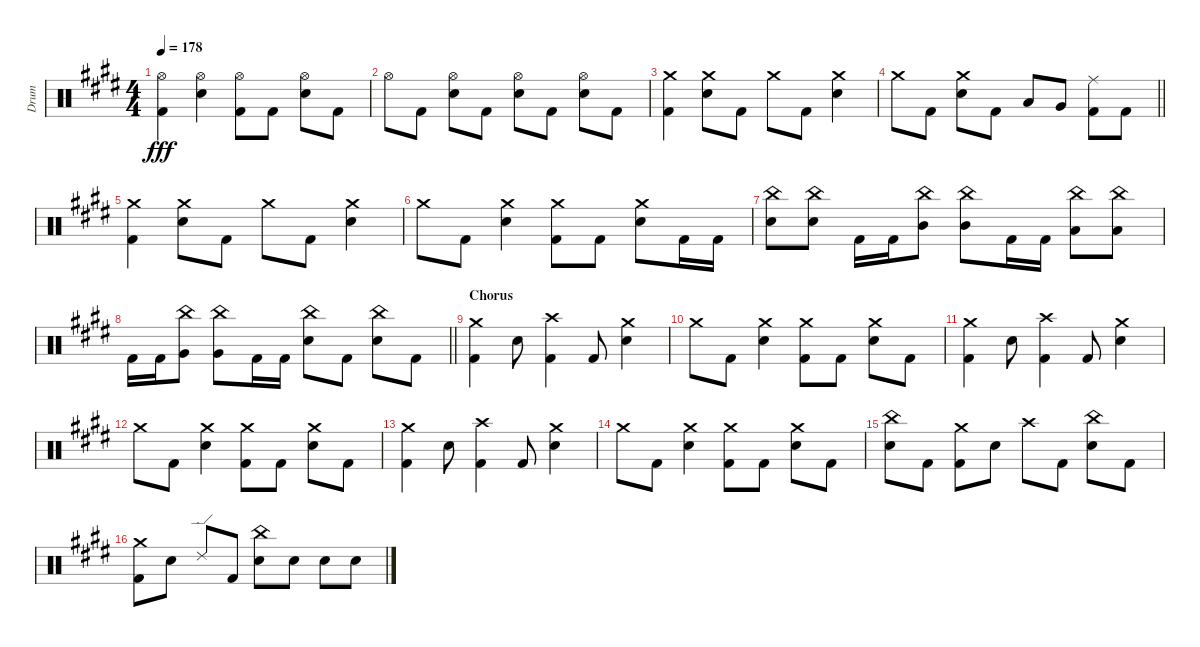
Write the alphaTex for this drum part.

\track ("Drum" "Drum") {instrument percussion}
\staff {score}
\articulation defaults
\ts (4 4)
\tempo 178
\clef neutral
\ks e
("Hi-Hat (open)" "Kick (hit) 2").4{dy fff} ("Hi-Hat (open)" "Electric Snare (hit)").4 ("Hi-Hat (open)" "Kick (hit) 2").8 "Kick (hit) 2".8 ("Hi-Hat (open)" "Electric Snare (hit)").8 "Kick (hit) 2".8 |
"Hi-Hat (open)".8 "Kick (hit) 2".8 ("Hi-Hat (open)" "Electric Snare (hit)").8 "Kick (hit) 2".8 ("Hi-Hat (open)" "Electric Snare (hit)").8 "Kick (hit) 2".8 ("Hi-Hat (open)" "Electric Snare (hit)").8 "Kick (hit) 2".8 |
("Crash medium (hit)" "Kick (hit) 2").4 ("Crash medium (hit)" "Electric Snare (hit)").8 "Kick (hit) 2".8 "Crash medium (hit)".8 "Kick (hit) 2".8 ("Crash medium (hit)" "Electric Snare (hit)").4 |
\barLineRight lightlight "Crash medium (hit)".8 "Kick (hit) 2".8
("Crash medium (hit)" "Electric Snare (hit)").8 "Kick (hit) 2".8 "Low Tom (hit)".8 "Very Low Tom (hit)".8 ("Ride (middle)" "Kick (hit) 2").8 "Kick (hit) 2".8 |
("Crash medium (hit)" "Kick (hit) 2").4 ("Crash medium (hit)" "Electric Snare (hit)").8 "Kick (hit) 2".8 "Crash medium (hit)".8 "Kick (hit) 2".8 ("Crash medium (hit)" "Electric Snare (hit)").4 |
"Crash medium (hit)".8 "Kick (hit) 2".8 ("Crash medium (hit)" "Electric Snare (hit)").4 ("Crash medium (hit)" "Kick (hit) 2").8 "Kick (hit) 2".8 ("Crash medium (hit)" "Electric Snare (hit)").8 "Kick (hit) 2".16 "Kick (hit) 2".16 |
("China (hit)" "Electric Snare (hit)").8 ("China (hit)" "Electric Snare (hit)").8 "Kick (hit) 2".16 "Kick (hit) 2".16 ("China (hit)" "Mid Tom (hit)").8 ("China (hit)" "Mid Tom (hit)").8 "Kick (hit) 2".16 "Kick (hit) 2".16 ("China (hit)" "Low Tom (hit)").8 ("China (hit)" "Low Tom (hit)").8 |
\barLineRight lightlight "Kick (hit) 2".16 "Kick (hit) 2".16
("China (hit)" "Very Low Tom (hit)").8 ("China (hit)" "Very Low Tom (hit)").8 "Kick (hit) 2".16 "Kick (hit) 2".16 ("China (hit)" "Electric Snare (hit)").8 "Kick (hit) 2".8 ("China (hit)" "Electric Snare (hit)").8 "Kick (hit) 2".8 |
\section ("" "Chorus")
("Crash medium (hit)" "Kick (hit) 2").4 "Electric Snare (hit)".8 ("Crash high (hit)" "Kick (hit) 2").4 "Kick (hit) 2".8 ("Crash medium (hit)" "Electric Snare (hit)").4 |
"Crash medium (hit)".8 "Kick (hit) 2".8 ("Crash medium (hit)" "Electric Snare (hit)").4 ("Crash medium (hit)" "Kick (hit) 2").8 "Kick (hit) 2".8 ("Crash medium (hit)" "Electric Snare (hit)").8 "Kick (hit) 2".8 |
("Crash medium (hit)" "Kick (hit) 2").4 "Electric Snare (hit)".8 ("Crash high (hit)" "Kick (hit) 2").4 "Kick (hit) 2".8 ("Crash medium (hit)" "Electric Snare (hit)").4 |
"Crash medium (hit)".8 "Kick (hit) 2".8 ("Crash medium (hit)" "Electric Snare (hit)").4 ("Crash medium (hit)" "Kick (hit) 2").8 "Kick (hit) 2".8 ("Crash medium (hit)" "Electric Snare (hit)").8 "Kick (hit) 2".8 |
("Crash medium (hit)" "Kick (hit) 2").4 "Electric Snare (hit)".8 ("Crash high (hit)" "Kick (hit) 2").4 "Kick (hit) 2".8 ("Crash medium (hit)" "Electric Snare (hit)").4 |
"Crash medium (hit)".8 "Kick (hit) 2".8 ("Crash medium (hit)" "Electric Snare (hit)").4 ("Crash medium (hit)" "Kick (hit) 2").8 "Kick (hit) 2".8 ("Crash medium (hit)" "Electric Snare (hit)").8 "Kick (hit) 2".8 |
("China (hit)" "Electric Snare (hit)").8 "Kick (hit) 2".8 ("Crash medium (hit)" "Kick (hit) 2").8 "Electric Snare (hit)".8 "Crash high (hit)".8 "Kick (hit) 2".8 ("China (hit)" "Electric Snare (hit)").8 "Kick (hit) 2".8 |
("Crash medium (hit)" "Kick (hit) 2").8 "Electric Snare (hit)".8 "Ride (edge) 2".8 "Kick (hit) 2".8 ("China (hit)" "Electric Snare (hit)").8 "Electric Snare (hit)".8 "Electric Snare (hit)".8 "Electric Snare (hit)".8
